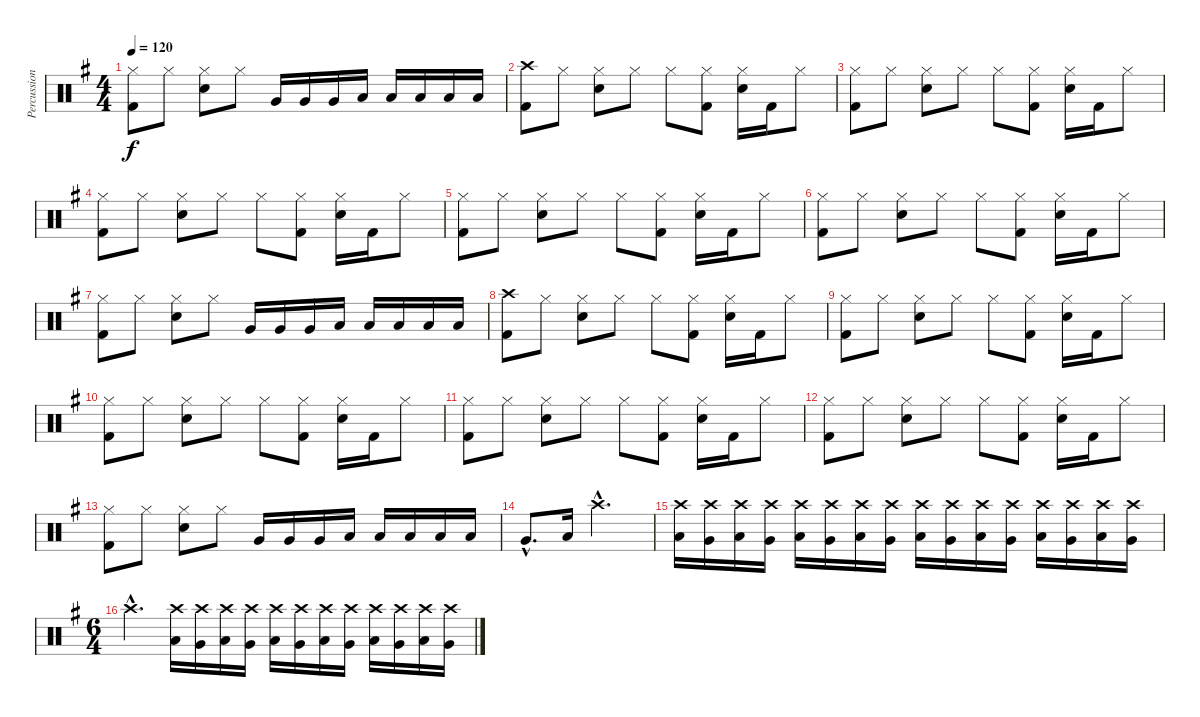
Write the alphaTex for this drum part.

\track ("Percussions" "Percussion") {instrument percussion}
\staff {score}
\articulation defaults
\ts (4 4)
\tempo 120
\clef neutral
\ks eminor
("Hi-Hat (closed)" "Kick (hit) 2").8{dy f} "Hi-Hat (closed)".8 ("Hi-Hat (closed)" "Snare (hit) 2").8 "Hi-Hat (closed)".8 "Very Low Tom (hit)".16 "Very Low Tom (hit)".16 "Very Low Tom (hit)".16 "Low Tom (hit)".16 "Low Tom (hit)".16 "Low Tom (hit)".16 "Low Floor Tom (hit)".16 "Low Floor Tom (hit)".16 |
("Crash high (hit)" "Kick (hit) 2").8 "Hi-Hat (closed)".8 ("Hi-Hat (closed)" "Snare (hit) 2").8 "Hi-Hat (closed)".8 "Hi-Hat (closed)".8 ("Hi-Hat (closed)" "Kick (hit) 2").8 ("Hi-Hat (closed)" "Snare (hit) 2").16 "Kick (hit) 2".16 "Hi-Hat (closed)".8 |
("Hi-Hat (closed)" "Kick (hit) 2").8 "Hi-Hat (closed)".8 ("Hi-Hat (closed)" "Snare (hit) 2").8 "Hi-Hat (closed)".8 "Hi-Hat (closed)".8 ("Hi-Hat (closed)" "Kick (hit) 2").8 ("Hi-Hat (closed)" "Snare (hit) 2").16 "Kick (hit) 2".16 "Hi-Hat (closed)".8 |
("Hi-Hat (closed)" "Kick (hit) 2").8 "Hi-Hat (closed)".8 ("Hi-Hat (closed)" "Snare (hit) 2").8 "Hi-Hat (closed)".8 "Hi-Hat (closed)".8 ("Hi-Hat (closed)" "Kick (hit) 2").8 ("Hi-Hat (closed)" "Snare (hit) 2").16 "Kick (hit) 2".16 "Hi-Hat (closed)".8 |
("Hi-Hat (closed)" "Kick (hit) 2").8 "Hi-Hat (closed)".8 ("Hi-Hat (closed)" "Snare (hit) 2").8 "Hi-Hat (closed)".8 "Hi-Hat (closed)".8 ("Hi-Hat (closed)" "Kick (hit) 2").8 ("Hi-Hat (closed)" "Snare (hit) 2").16 "Kick (hit) 2".16 "Hi-Hat (closed)".8 |
("Hi-Hat (closed)" "Kick (hit) 2").8 "Hi-Hat (closed)".8 ("Hi-Hat (closed)" "Snare (hit) 2").8 "Hi-Hat (closed)".8 "Hi-Hat (closed)".8 ("Hi-Hat (closed)" "Kick (hit) 2").8 ("Hi-Hat (closed)" "Snare (hit) 2").16 "Kick (hit) 2".16 "Hi-Hat (closed)".8 |
("Hi-Hat (closed)" "Kick (hit) 2").8 "Hi-Hat (closed)".8 ("Hi-Hat (closed)" "Snare (hit) 2").8 "Hi-Hat (closed)".8 "Very Low Tom (hit)".16 "Very Low Tom (hit)".16 "Very Low Tom (hit)".16 "Low Tom (hit)".16 "Low Tom (hit)".16 "Low Tom (hit)".16 "Low Floor Tom (hit)".16 "Low Floor Tom (hit)".16 |
("Crash high (hit)" "Kick (hit) 2").8 "Hi-Hat (closed)".8 ("Hi-Hat (closed)" "Snare (hit) 2").8 "Hi-Hat (closed)".8 "Hi-Hat (closed)".8 ("Hi-Hat (closed)" "Kick (hit) 2").8 ("Hi-Hat (closed)" "Snare (hit) 2").16 "Kick (hit) 2".16 "Hi-Hat (closed)".8 |
("Hi-Hat (closed)" "Kick (hit) 2").8 "Hi-Hat (closed)".8 ("Hi-Hat (closed)" "Snare (hit) 2").8 "Hi-Hat (closed)".8 "Hi-Hat (closed)".8 ("Hi-Hat (closed)" "Kick (hit) 2").8 ("Hi-Hat (closed)" "Snare (hit) 2").16 "Kick (hit) 2".16 "Hi-Hat (closed)".8 |
("Hi-Hat (closed)" "Kick (hit) 2").8 "Hi-Hat (closed)".8 ("Hi-Hat (closed)" "Snare (hit) 2").8 "Hi-Hat (closed)".8 "Hi-Hat (closed)".8 ("Hi-Hat (closed)" "Kick (hit) 2").8 ("Hi-Hat (closed)" "Snare (hit) 2").16 "Kick (hit) 2".16 "Hi-Hat (closed)".8 |
("Hi-Hat (closed)" "Kick (hit) 2").8 "Hi-Hat (closed)".8 ("Hi-Hat (closed)" "Snare (hit) 2").8 "Hi-Hat (closed)".8 "Hi-Hat (closed)".8 ("Hi-Hat (closed)" "Kick (hit) 2").8 ("Hi-Hat (closed)" "Snare (hit) 2").16 "Kick (hit) 2".16 "Hi-Hat (closed)".8 |
("Hi-Hat (closed)" "Kick (hit) 2").8 "Hi-Hat (closed)".8 ("Hi-Hat (closed)" "Snare (hit) 2").8 "Hi-Hat (closed)".8 "Hi-Hat (closed)".8 ("Hi-Hat (closed)" "Kick (hit) 2").8 ("Hi-Hat (closed)" "Snare (hit) 2").16 "Kick (hit) 2".16 "Hi-Hat (closed)".8 |
("Hi-Hat (closed)" "Kick (hit) 2").8 "Hi-Hat (closed)".8 ("Hi-Hat (closed)" "Snare (hit) 2").8 "Hi-Hat (closed)".8 "Very Low Tom (hit)".16 "Very Low Tom (hit)".16 "Very Low Tom (hit)".16 "Low Tom (hit)".16 "Low Tom (hit)".16 "Low Tom (hit)".16 "Low Floor Tom (hit)".16 "Low Floor Tom (hit)".16 |
"Very Low Tom (hit)"{hac}.8{d} "Low Tom (hit)".16 "Crash high (hit)"{hac}.2{d} |
("Crash high (hit)" "Low Tom (hit)").16 ("Crash high (hit)" "Very Low Tom (hit)").16 ("Crash high (hit)" "Low Tom (hit)").16 ("Crash high (hit)" "Very Low Tom (hit)").16 ("Crash high (hit)" "Low Tom (hit)").16 ("Crash high (hit)" "Very Low Tom (hit)").16 ("Crash high (hit)" "Low Tom (hit)").16 ("Crash high (hit)" "Very Low Tom (hit)").16 ("Crash high (hit)" "Low Tom (hit)").16 ("Crash high (hit)" "Very Low Tom (hit)").16 ("Crash high (hit)" "Low Tom (hit)").16 ("Crash high (hit)" "Very Low Tom (hit)").16 ("Crash high (hit)" "Low Tom (hit)").16 ("Crash high (hit)" "Very Low Tom (hit)").16 ("Crash high (hit)" "Low Tom (hit)").16 ("Crash high (hit)" "Very Low Tom (hit)").16 |
\ts (6 4)
"Crash high (hit)"{hac}.2{d} ("Crash high (hit)" "Low Tom (hit)").16 ("Crash high (hit)" "Very Low Tom (hit)").16 ("Crash high (hit)" "Low Tom (hit)").16 ("Crash high (hit)" "Very Low Tom (hit)").16 ("Crash high (hit)" "Low Tom (hit)").16 ("Crash high (hit)" "Very Low Tom (hit)").16 ("Crash high (hit)" "Low Tom (hit)").16 ("Crash high (hit)" "Very Low Tom (hit)").16 ("Crash high (hit)" "Low Tom (hit)").16 ("Crash high (hit)" "Very Low Tom (hit)").16 ("Crash high (hit)" "Low Tom (hit)").16 ("Crash high (hit)" "Very Low Tom (hit)").16
